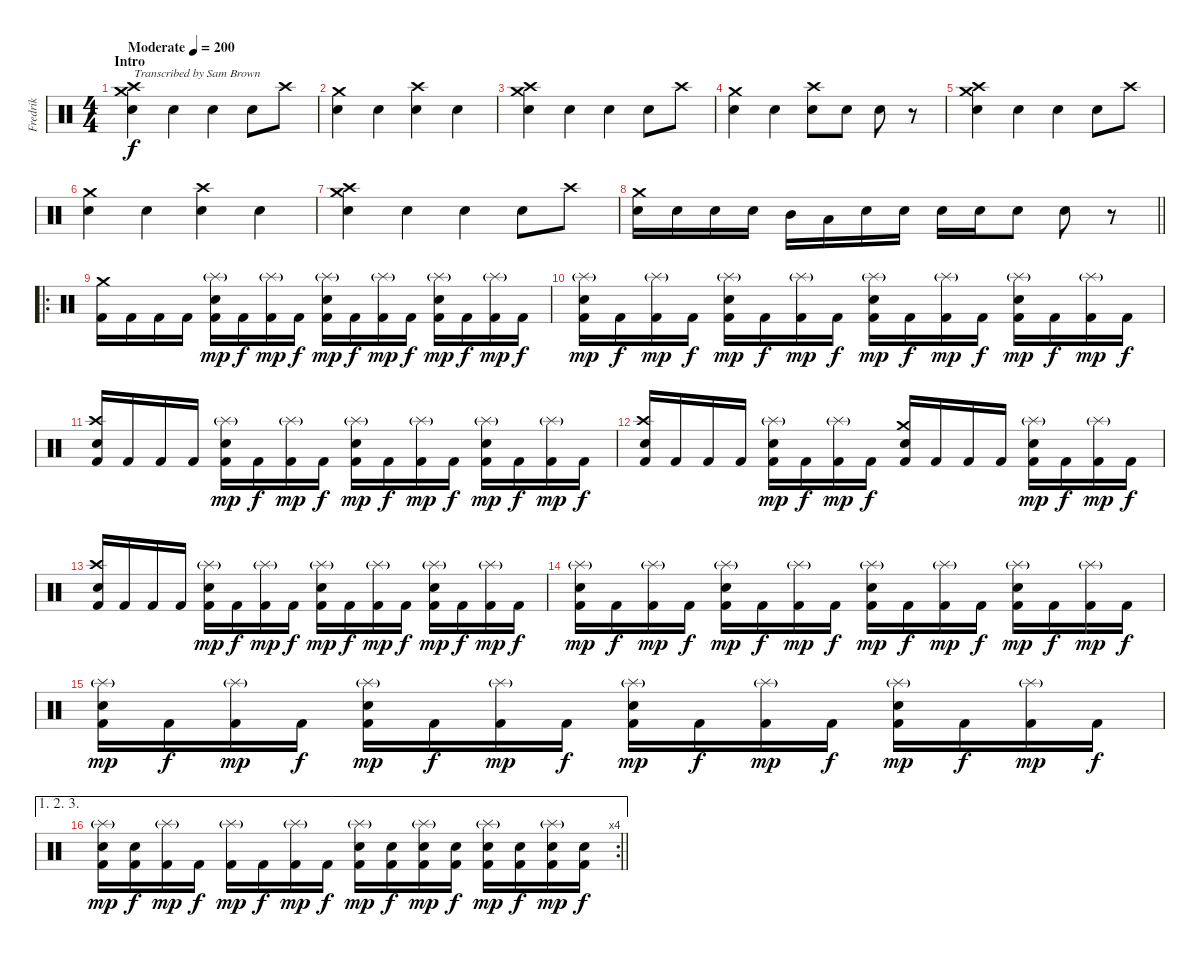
\track ("Fredrik" "Fredrik") {instrument percussion}
\staff {score}
\articulation defaults
\ts (4 4)
\section ("" "Intro")
\tempo (200 "Moderate")
\clef neutral
\ks c
("Snare (hit) 2" "Crash high (hit)" "Crash medium (hit)").4{txt "Transcribed by Sam Brown" dy f} "Snare (hit) 2".4 "Snare (hit) 2".4 "Snare (hit) 2".8 "Crash high (hit)".8 |
("Snare (hit) 2" "Crash medium (hit)").4 "Snare (hit) 2".4 ("Snare (hit) 2" "Crash high (hit)").4 "Snare (hit) 2".4 |
("Snare (hit) 2" "Crash high (hit)" "Crash medium (hit)").4 "Snare (hit) 2".4 "Snare (hit) 2".4 "Snare (hit) 2".8 "Crash high (hit)".8 |
("Snare (hit) 2" "Crash medium (hit)").4 "Snare (hit) 2".4 ("Snare (hit) 2" "Crash high (hit)").8 "Snare (hit) 2".8 "Snare (hit) 2".8 r.8 |
("Snare (hit) 2" "Crash high (hit)" "Crash medium (hit)").4 "Snare (hit) 2".4 "Snare (hit) 2".4 "Snare (hit) 2".8 "Crash high (hit)".8 |
("Snare (hit) 2" "Crash medium (hit)").4 "Snare (hit) 2".4 ("Snare (hit) 2" "Crash high (hit)").4 "Snare (hit) 2".4 |
("Snare (hit) 2" "Crash high (hit)" "Crash medium (hit)").4 "Snare (hit) 2".4 "Snare (hit) 2".4 "Snare (hit) 2".8 "Crash high (hit)".8 |
\barLineRight lightlight
("Snare (hit) 2" "Crash medium (hit)").16 "Snare (hit) 2".16 "Snare (hit) 2".16 "Snare (hit) 2".16 "Mid Tom (hit)".16 "Low Tom (hit)".16 "Snare (hit) 2".16 "Snare (hit) 2".16 "Snare (hit) 2".16 "Snare (hit) 2".16 "Snare (hit) 2".8 "Snare (hit) 2".8 r.8 |
\ro
\section ("" "")
("Kick (hit) 2" "Crash medium (hit)").16 "Kick (hit) 2".16 "Kick (hit) 2".16 "Kick (hit) 2".16 ("Kick (hit) 2" "Snare (hit) 2" "Splash (hit)"{g}).16{dy mp} "Kick (hit) 2".16{dy f} ("Kick (hit) 2" "Splash (hit)"{g}).16{dy mp} "Kick (hit) 2".16{dy f} ("Kick (hit) 2" "Snare (hit) 2" "Splash (hit)"{g}).16{dy mp} "Kick (hit) 2".16{dy f} ("Kick (hit) 2" "Splash (hit)"{g}).16{dy mp} "Kick (hit) 2".16{dy f} ("Kick (hit) 2" "Snare (hit) 2" "Splash (hit)"{g}).16{dy mp} "Kick (hit) 2".16{dy f} ("Kick (hit) 2" "Splash (hit)"{g}).16{dy mp} "Kick (hit) 2".16{dy f} |
("Kick (hit) 2" "Snare (hit) 2" "Splash (hit)"{g}).16{dy mp} "Kick (hit) 2".16{dy f} ("Kick (hit) 2" "Splash (hit)"{g}).16{dy mp} "Kick (hit) 2".16{dy f} ("Kick (hit) 2" "Snare (hit) 2" "Splash (hit)"{g}).16{dy mp} "Kick (hit) 2".16{dy f} ("Kick (hit) 2" "Splash (hit)"{g}).16{dy mp} "Kick (hit) 2".16{dy f} ("Kick (hit) 2" "Snare (hit) 2" "Splash (hit)"{g}).16{dy mp} "Kick (hit) 2".16{dy f} ("Kick (hit) 2" "Splash (hit)"{g}).16{dy mp} "Kick (hit) 2".16{dy f} ("Kick (hit) 2" "Snare (hit) 2" "Splash (hit)"{g}).16{dy mp} "Kick (hit) 2".16{dy f} ("Kick (hit) 2" "Splash (hit)"{g}).16{dy mp} "Kick (hit) 2".16{dy f} |
("Kick (hit) 2" "Snare (hit) 2" "Crash high (hit)").16 "Kick (hit) 2".16 "Kick (hit) 2".16 "Kick (hit) 2".16 ("Kick (hit) 2" "Snare (hit) 2" "Splash (hit)"{g}).16{dy mp} "Kick (hit) 2".16{dy f} ("Kick (hit) 2" "Splash (hit)"{g}).16{dy mp} "Kick (hit) 2".16{dy f} ("Kick (hit) 2" "Snare (hit) 2" "Splash (hit)"{g}).16{dy mp} "Kick (hit) 2".16{dy f} ("Kick (hit) 2" "Splash (hit)"{g}).16{dy mp} "Kick (hit) 2".16{dy f} ("Kick (hit) 2" "Snare (hit) 2" "Splash (hit)"{g}).16{dy mp} "Kick (hit) 2".16{dy f} ("Kick (hit) 2" "Splash (hit)"{g}).16{dy mp} "Kick (hit) 2".16{dy f} |
("Kick (hit) 2" "Snare (hit) 2" "Crash high (hit)").16 "Kick (hit) 2".16 "Kick (hit) 2".16 "Kick (hit) 2".16 ("Kick (hit) 2" "Snare (hit) 2" "Splash (hit)"{g}).16{dy mp} "Kick (hit) 2".16{dy f} ("Kick (hit) 2" "Splash (hit)"{g}).16{dy mp} "Kick (hit) 2".16{dy f} ("Kick (hit) 2" "Snare (hit) 2" "Crash medium (hit)").16 "Kick (hit) 2".16 "Kick (hit) 2".16 "Kick (hit) 2".16 ("Kick (hit) 2" "Snare (hit) 2" "Splash (hit)"{g}).16{dy mp} "Kick (hit) 2".16{dy f} ("Kick (hit) 2" "Splash (hit)"{g}).16{dy mp} "Kick (hit) 2".16{dy f} |
("Kick (hit) 2" "Snare (hit) 2" "Crash high (hit)").16 "Kick (hit) 2".16 "Kick (hit) 2".16 "Kick (hit) 2".16 ("Kick (hit) 2" "Snare (hit) 2" "Splash (hit)"{g}).16{dy mp} "Kick (hit) 2".16{dy f} ("Kick (hit) 2" "Splash (hit)"{g}).16{dy mp} "Kick (hit) 2".16{dy f} ("Kick (hit) 2" "Snare (hit) 2" "Splash (hit)"{g}).16{dy mp} "Kick (hit) 2".16{dy f} ("Kick (hit) 2" "Splash (hit)"{g}).16{dy mp} "Kick (hit) 2".16{dy f} ("Kick (hit) 2" "Snare (hit) 2" "Splash (hit)"{g}).16{dy mp} "Kick (hit) 2".16{dy f} ("Kick (hit) 2" "Splash (hit)"{g}).16{dy mp} "Kick (hit) 2".16{dy f} |
("Kick (hit) 2" "Snare (hit) 2" "Splash (hit)"{g}).16{dy mp} "Kick (hit) 2".16{dy f} ("Kick (hit) 2" "Splash (hit)"{g}).16{dy mp} "Kick (hit) 2".16{dy f} ("Kick (hit) 2" "Snare (hit) 2" "Splash (hit)"{g}).16{dy mp} "Kick (hit) 2".16{dy f} ("Kick (hit) 2" "Splash (hit)"{g}).16{dy mp} "Kick (hit) 2".16{dy f} ("Kick (hit) 2" "Snare (hit) 2" "Splash (hit)"{g}).16{dy mp} "Kick (hit) 2".16{dy f} ("Kick (hit) 2" "Splash (hit)"{g}).16{dy mp} "Kick (hit) 2".16{dy f} ("Kick (hit) 2" "Snare (hit) 2" "Splash (hit)"{g}).16{dy mp} "Kick (hit) 2".16{dy f} ("Kick (hit) 2" "Splash (hit)"{g}).16{dy mp} "Kick (hit) 2".16{dy f} |
("Kick (hit) 2" "Snare (hit) 2" "Splash (hit)"{g}).16{dy mp} "Kick (hit) 2".16{dy f} ("Kick (hit) 2" "Splash (hit)"{g}).16{dy mp} "Kick (hit) 2".16{dy f} ("Kick (hit) 2" "Snare (hit) 2" "Splash (hit)"{g}).16{dy mp} "Kick (hit) 2".16{dy f} ("Kick (hit) 2" "Splash (hit)"{g}).16{dy mp} "Kick (hit) 2".16{dy f} ("Kick (hit) 2" "Snare (hit) 2" "Splash (hit)"{g}).16{dy mp} "Kick (hit) 2".16{dy f} ("Kick (hit) 2" "Splash (hit)"{g}).16{dy mp} "Kick (hit) 2".16{dy f} ("Kick (hit) 2" "Snare (hit) 2" "Splash (hit)"{g}).16{dy mp} "Kick (hit) 2".16{dy f} ("Kick (hit) 2" "Splash (hit)"{g}).16{dy mp} "Kick (hit) 2".16{dy f} |
\ae (1 2 3)
\rc 4
\barLineRight lightlight
("Kick (hit) 2" "Snare (hit) 2" "Splash (hit)"{g}).16{dy mp} ("Kick (hit) 2" "Snare (hit) 2").16{dy f} ("Kick (hit) 2" "Splash (hit)"{g}).16{dy mp} "Kick (hit) 2".16{dy f} ("Kick (hit) 2" "Splash (hit)"{g}).16{dy mp} "Kick (hit) 2".16{dy f} ("Kick (hit) 2" "Splash (hit)"{g}).16{dy mp} "Kick (hit) 2".16{dy f} ("Kick (hit) 2" "Snare (hit) 2" "Splash (hit)"{g}).16{dy mp} ("Kick (hit) 2" "Snare (hit) 2").16{dy f} ("Kick (hit) 2" "Snare (hit) 2" "Splash (hit)"{g}).16{dy mp} ("Kick (hit) 2" "Snare (hit) 2").16{dy f} ("Kick (hit) 2" "Snare (hit) 2" "Splash (hit)"{g}).16{dy mp} ("Kick (hit) 2" "Snare (hit) 2").16{dy f} ("Kick (hit) 2" "Snare (hit) 2" "Splash (hit)"{g}).16{dy mp} ("Kick (hit) 2" "Snare (hit) 2").16{dy f}
